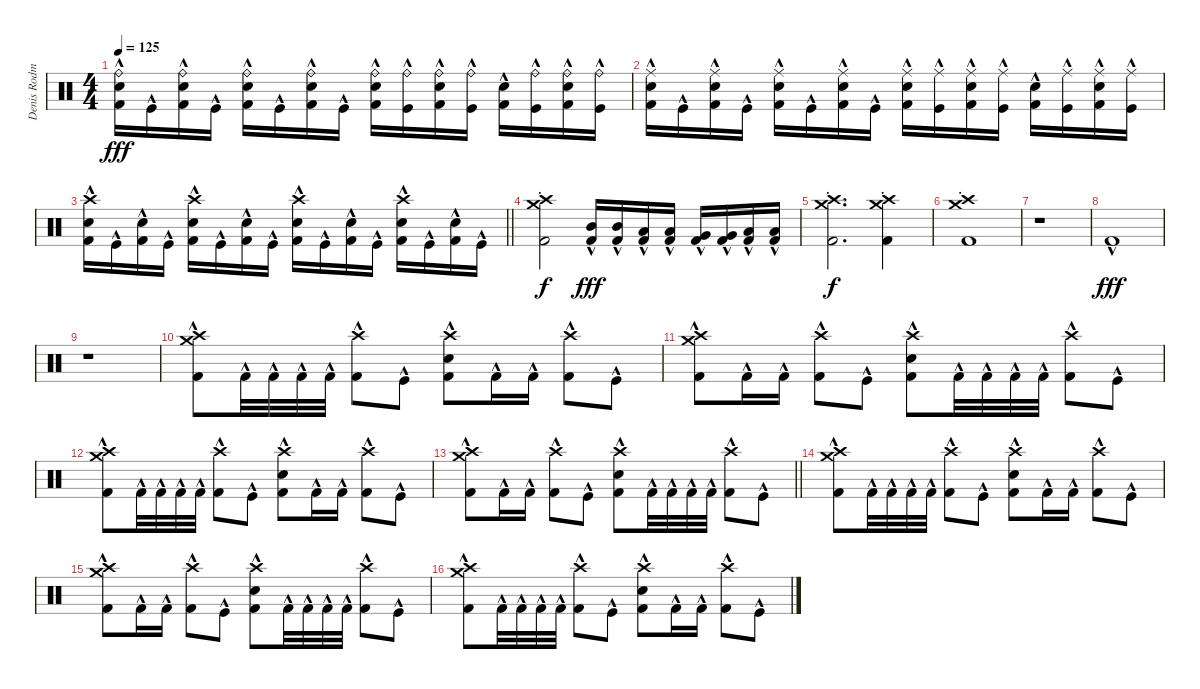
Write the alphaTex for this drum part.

\track ("Denis Rodman" "Denis Rodm") {instrument percussion}
\staff {score}
\articulation defaults
\ts (4 4)
\tempo 125
\clef neutral
\ks c
("Ride (bell)"{hac} "Kick (hit) 2"{hac} "Snare (hit) 2").16{dy fff} "Kick (hit)"{hac}.16 ("Ride (bell)"{hac} "Kick (hit) 2"{hac} "Snare (hit) 2").16 "Kick (hit)"{hac}.16 ("Ride (bell)"{hac} "Kick (hit) 2"{hac} "Snare (hit) 2").16 "Kick (hit)"{hac}.16 ("Ride (bell)"{hac} "Kick (hit) 2"{hac} "Snare (hit) 2").16 "Kick (hit)"{hac}.16 ("Ride (bell)"{hac} "Kick (hit) 2"{hac} "Snare (hit) 2").16 ("Ride (bell)"{hac} "Kick (hit)"{hac}).16 ("Ride (bell)"{hac} "Kick (hit) 2"{hac} "Snare (hit) 2").16 ("Ride (bell)"{hac} "Kick (hit)"{hac}).16 ("Kick (hit) 2"{hac} "Snare (hit) 2").16 ("Ride (bell)"{hac} "Kick (hit)"{hac}).16 ("Ride (bell)"{hac} "Kick (hit) 2"{hac} "Snare (hit) 2").16 ("Ride (bell)"{hac} "Kick (hit)"{hac}).16 |
("Ride (middle)"{hac} "Kick (hit) 2"{hac} "Snare (hit) 2").16 "Kick (hit)"{hac}.16 ("Ride (middle)"{hac} "Kick (hit) 2"{hac} "Snare (hit) 2").16 "Kick (hit)"{hac}.16 ("Ride (middle)"{hac} "Kick (hit) 2"{hac} "Snare (hit) 2").16 "Kick (hit)"{hac}.16 ("Ride (middle)"{hac} "Kick (hit) 2"{hac} "Snare (hit) 2").16 "Kick (hit)"{hac}.16 ("Ride (middle)"{hac} "Kick (hit) 2"{hac} "Snare (hit) 2").16 ("Ride (middle)"{hac} "Kick (hit)"{hac}).16 ("Ride (middle)"{hac} "Kick (hit) 2"{hac} "Snare (hit) 2").16 ("Ride (middle)"{hac} "Kick (hit)"{hac}).16 ("Kick (hit) 2"{hac} "Snare (hit) 2").16 ("Ride (middle)"{hac} "Kick (hit)"{hac}).16 ("Ride (middle)"{hac} "Kick (hit) 2"{hac} "Snare (hit) 2").16 ("Ride (middle)"{hac} "Kick (hit)"{hac}).16 |
\barLineRight lightlight
("Crash high (hit)" "Kick (hit) 2"{hac} "Snare (hit) 2").16 "Kick (hit)"{hac}.16 ("Kick (hit) 2"{hac} "Snare (hit) 2").16 "Kick (hit)"{hac}.16 ("Crash high (hit)" "Kick (hit) 2"{hac} "Snare (hit) 2").16 "Kick (hit)"{hac}.16 ("Kick (hit) 2"{hac} "Snare (hit) 2").16 "Kick (hit)"{hac}.16 ("Crash high (hit)" "Kick (hit) 2"{hac} "Snare (hit) 2").16 "Kick (hit)"{hac}.16 ("Kick (hit) 2"{hac} "Snare (hit) 2").16 "Kick (hit)"{hac}.16 ("Crash high (hit)" "Kick (hit) 2"{hac} "Snare (hit) 2").16 "Kick (hit)"{hac}.16 ("Kick (hit) 2"{hac} "Snare (hit) 2").16 "Kick (hit)"{hac}.16 |
("Crash high (hit)" "Crash medium (hit)" "Kick (hit) 2"{st}).2{dy f} ("Mid Tom (hit)"{hac} "Kick (hit) 2").16{dy fff} ("Mid Tom (hit)"{hac} "Kick (hit) 2").16 ("Low Tom (hit)"{hac} "Kick (hit) 2").16 ("Low Tom (hit)"{hac} "Kick (hit) 2").16 ("Very Low Tom (hit)"{hac} "Kick (hit) 2").16 ("Very Low Tom (hit)"{hac} "Kick (hit) 2").16 ("Low Floor Tom (hit)"{hac} "Kick (hit) 2").16 ("Low Floor Tom (hit)"{hac} "Kick (hit) 2").16 |
("Crash high (hit)" "Crash medium (hit)" "Kick (hit) 2"{st}).2{d dy f} ("Crash high (hit)" "Crash medium (hit)" "Kick (hit) 2"{st}).4 |
("Crash high (hit)" "Crash medium (hit)" "Kick (hit) 2"{st}).1 |
r.1 |
"Kick (hit) 2"{hac}.1{dy fff} |
r.1 |
("Crash high (hit)" "Kick (hit) 2"{hac} "Crash medium (hit)").8 "Kick (hit) 2"{hac}.32 "Kick (hit) 2"{hac}.32 "Kick (hit) 2"{hac}.32 "Kick (hit) 2"{hac}.32 ("Crash high (hit)" "Kick (hit) 2"{hac}).8 "Kick (hit)"{hac}.8 ("Crash high (hit)" "Kick (hit) 2"{hac} "Snare (hit) 2").8 "Kick (hit) 2"{hac}.16 "Kick (hit) 2"{hac}.16 ("Crash high (hit)" "Kick (hit) 2"{hac}).8 "Kick (hit)"{hac}.8 |
("Crash high (hit)" "Kick (hit) 2"{hac} "Crash medium (hit)").8 "Kick (hit) 2"{hac}.16 "Kick (hit) 2"{hac}.16 ("Crash high (hit)" "Kick (hit) 2"{hac}).8 "Kick (hit)"{hac}.8 ("Crash high (hit)" "Kick (hit) 2"{hac} "Snare (hit) 2").8 "Kick (hit) 2"{hac}.32 "Kick (hit) 2"{hac}.32 "Kick (hit) 2"{hac}.32 "Kick (hit) 2"{hac}.32 ("Crash high (hit)" "Kick (hit) 2"{hac}).8 "Kick (hit)"{hac}.8 |
("Crash high (hit)" "Kick (hit) 2"{hac} "Crash medium (hit)").8 "Kick (hit) 2"{hac}.32 "Kick (hit) 2"{hac}.32 "Kick (hit) 2"{hac}.32 "Kick (hit) 2"{hac}.32 ("Crash high (hit)" "Kick (hit) 2"{hac}).8 "Kick (hit)"{hac}.8 ("Crash high (hit)" "Kick (hit) 2"{hac} "Snare (hit) 2").8 "Kick (hit) 2"{hac}.16 "Kick (hit) 2"{hac}.16 ("Crash high (hit)" "Kick (hit) 2"{hac}).8 "Kick (hit)"{hac}.8 |
\barLineRight lightlight
("Crash high (hit)" "Kick (hit) 2"{hac} "Crash medium (hit)").8 "Kick (hit) 2"{hac}.16 "Kick (hit) 2"{hac}.16 ("Crash high (hit)" "Kick (hit) 2"{hac}).8 "Kick (hit)"{hac}.8 ("Crash high (hit)" "Kick (hit) 2"{hac} "Snare (hit) 2").8 "Kick (hit) 2"{hac}.32 "Kick (hit) 2"{hac}.32 "Kick (hit) 2"{hac}.32 "Kick (hit) 2"{hac}.32 ("Crash high (hit)" "Kick (hit) 2"{hac}).8 "Kick (hit)"{hac}.8 |
("Crash high (hit)" "Kick (hit) 2"{hac} "Crash medium (hit)").8 "Kick (hit) 2"{hac}.32 "Kick (hit) 2"{hac}.32 "Kick (hit) 2"{hac}.32 "Kick (hit) 2"{hac}.32 ("Crash high (hit)" "Kick (hit) 2"{hac}).8 "Kick (hit)"{hac}.8 ("Crash high (hit)" "Kick (hit) 2"{hac} "Snare (hit) 2").8 "Kick (hit) 2"{hac}.16 "Kick (hit) 2"{hac}.16 ("Crash high (hit)" "Kick (hit) 2"{hac}).8 "Kick (hit)"{hac}.8 |
("Crash high (hit)" "Kick (hit) 2"{hac} "Crash medium (hit)").8 "Kick (hit) 2"{hac}.16 "Kick (hit) 2"{hac}.16 ("Crash high (hit)" "Kick (hit) 2"{hac}).8 "Kick (hit)"{hac}.8 ("Crash high (hit)" "Kick (hit) 2"{hac} "Snare (hit) 2").8 "Kick (hit) 2"{hac}.32 "Kick (hit) 2"{hac}.32 "Kick (hit) 2"{hac}.32 "Kick (hit) 2"{hac}.32 ("Crash high (hit)" "Kick (hit) 2"{hac}).8 "Kick (hit)"{hac}.8 |
("Crash high (hit)" "Kick (hit) 2"{hac} "Crash medium (hit)").8 "Kick (hit) 2"{hac}.32 "Kick (hit) 2"{hac}.32 "Kick (hit) 2"{hac}.32 "Kick (hit) 2"{hac}.32 ("Crash high (hit)" "Kick (hit) 2"{hac}).8 "Kick (hit)"{hac}.8 ("Crash high (hit)" "Kick (hit) 2"{hac} "Snare (hit) 2").8 "Kick (hit) 2"{hac}.16 "Kick (hit) 2"{hac}.16 ("Crash high (hit)" "Kick (hit) 2"{hac}).8 "Kick (hit)"{hac}.8
